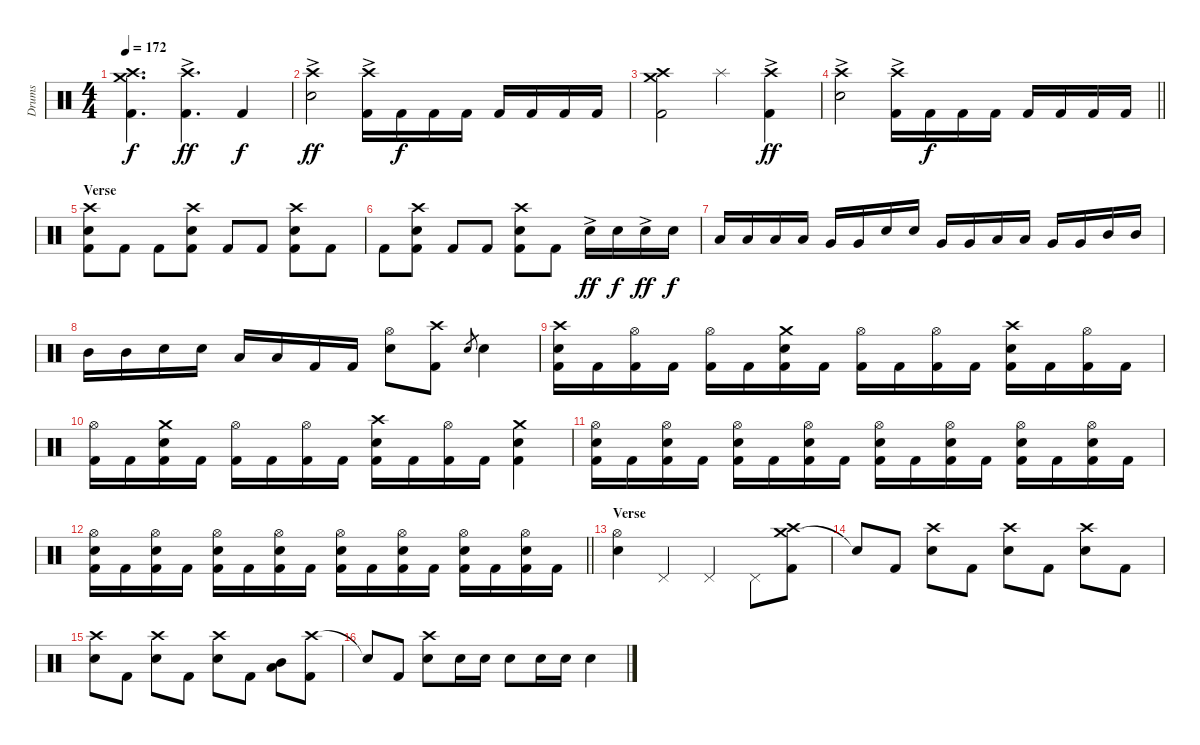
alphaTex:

\track ("Drums" "Drums") {instrument percussion}
\staff {score}
\articulation defaults
\ts (4 4)
\tempo 172
\clef neutral
\ks c
("Crash medium (hit)" "Crash high (hit)" "Kick (hit) 2").4{d dy f} ("Crash high (hit)"{ac} "Kick (hit) 2").4{d dy ff} "Kick (hit) 2".4{dy f} |
("Crash high (hit)"{ac} "Electric Snare (hit)").2{dy ff} ("Crash high (hit)"{ac} "Kick (hit) 2").16 "Kick (hit) 2".16{dy f} "Kick (hit) 2".16 "Kick (hit) 2".16 "Kick (hit) 2".16 "Kick (hit) 2".16 "Kick (hit) 2".16 "Kick (hit) 2".16 |
("Crash medium (hit)" "Crash high (hit)" "Kick (hit) 2").2 "Splash (hit)".4 ("Crash high (hit)"{ac} "Kick (hit) 2").4{dy ff} |
\barLineRight lightlight
("Crash high (hit)"{ac} "Electric Snare (hit)").2 ("Crash high (hit)"{ac} "Kick (hit) 2").16 "Kick (hit) 2".16{dy f} "Kick (hit) 2".16 "Kick (hit) 2".16 "Kick (hit) 2".16 "Kick (hit) 2".16 "Kick (hit) 2".16 "Kick (hit) 2".16 |
\section ("" "Verse")
("Crash high (hit)" "Electric Snare (hit)" "Kick (hit) 2").8 "Kick (hit) 2".8 "Kick (hit) 2".8 ("Crash high (hit)" "Electric Snare (hit)" "Kick (hit) 2").8 "Kick (hit) 2".8 "Kick (hit) 2".8 ("Crash high (hit)" "Electric Snare (hit)" "Kick (hit) 2").8 "Kick (hit) 2".8 |
"Kick (hit) 2".8 ("Crash high (hit)" "Electric Snare (hit)" "Kick (hit) 2").8 "Kick (hit) 2".8 "Kick (hit) 2".8 ("Crash high (hit)" "Electric Snare (hit)" "Kick (hit) 2").8 "Kick (hit) 2".8 "Electric Snare (hit)"{ac}.16{dy ff} "Electric Snare (hit)".16{dy f} "Electric Snare (hit)"{ac}.16{dy ff} "Electric Snare (hit)".16{dy f} |
"Low Tom (hit)".16 "Low Tom (hit)".16 "Low Tom (hit)".16 "Low Tom (hit)".16 "Very Low Tom (hit)".16 "Very Low Tom (hit)".16 "Electric Snare (hit)".16 "Electric Snare (hit)".16 "Very Low Tom (hit)".16 "Very Low Tom (hit)".16 "Low Tom (hit)".16 "Low Tom (hit)".16 "Very Low Tom (hit)".16 "Very Low Tom (hit)".16 "Mid Tom (hit)".16 "Mid Tom (hit)".16 |
"Mid Tom (hit)".16 "Mid Tom (hit)".16 "Electric Snare (hit)".16 "Electric Snare (hit)".16 "Low Tom (hit)".16 "Low Tom (hit)".16 "Kick (hit) 2".16 "Kick (hit) 2".16 ("Hi-Hat (open)" "Electric Snare (hit)").8 ("Crash high (hit)" "Kick (hit) 2").8 "Electric Snare (hit)".8{gr} "Electric Snare (hit)".4 |
("Crash high (hit)" "Electric Snare (hit)" "Kick (hit) 2").16 "Kick (hit) 2".16 ("Hi-Hat (open)" "Kick (hit) 2").16 "Kick (hit) 2".16 ("Hi-Hat (open)" "Kick (hit) 2").16 "Kick (hit) 2".16 ("Crash medium (hit)" "Electric Snare (hit)" "Kick (hit) 2").16 "Kick (hit) 2".16 ("Hi-Hat (open)" "Kick (hit) 2").16 "Kick (hit) 2".16 ("Hi-Hat (open)" "Kick (hit) 2").16 "Kick (hit) 2".16 ("Crash high (hit)" "Electric Snare (hit)" "Kick (hit) 2").16 "Kick (hit) 2".16 ("Hi-Hat (open)" "Kick (hit) 2").16 "Kick (hit) 2".16 |
("Hi-Hat (open)" "Kick (hit) 2").16 "Kick (hit) 2".16 ("Crash medium (hit)" "Electric Snare (hit)" "Kick (hit) 2").16 "Kick (hit) 2".16 ("Hi-Hat (open)" "Kick (hit) 2").16 "Kick (hit) 2".16 ("Hi-Hat (open)" "Kick (hit) 2").16 "Kick (hit) 2".16 ("Crash high (hit)" "Electric Snare (hit)" "Kick (hit) 2").16 "Kick (hit) 2".16 ("Hi-Hat (open)" "Kick (hit) 2").16 "Kick (hit) 2".16 ("Crash medium (hit)" "Electric Snare (hit)" "Kick (hit) 2").4 |
("Hi-Hat (open)" "Electric Snare (hit)" "Kick (hit) 2").16 "Kick (hit) 2".16 ("Hi-Hat (open)" "Electric Snare (hit)" "Kick (hit) 2").16 "Kick (hit) 2".16 ("Hi-Hat (open)" "Electric Snare (hit)" "Kick (hit) 2").16 "Kick (hit) 2".16 ("Hi-Hat (open)" "Electric Snare (hit)" "Kick (hit) 2").16 "Kick (hit) 2".16 ("Hi-Hat (open)" "Electric Snare (hit)" "Kick (hit) 2").16 "Kick (hit) 2".16 ("Hi-Hat (open)" "Electric Snare (hit)" "Kick (hit) 2").16 "Kick (hit) 2".16 ("Hi-Hat (open)" "Electric Snare (hit)" "Kick (hit) 2").16 "Kick (hit) 2".16 ("Hi-Hat (open)" "Electric Snare (hit)" "Kick (hit) 2").16 "Kick (hit) 2".16 |
\barLineRight lightlight
("Hi-Hat (open)" "Electric Snare (hit)" "Kick (hit) 2").16 "Kick (hit) 2".16 ("Hi-Hat (open)" "Electric Snare (hit)" "Kick (hit) 2").16 "Kick (hit) 2".16 ("Hi-Hat (open)" "Electric Snare (hit)" "Kick (hit) 2").16 "Kick (hit) 2".16 ("Hi-Hat (open)" "Electric Snare (hit)" "Kick (hit) 2").16 "Kick (hit) 2".16 ("Hi-Hat (open)" "Electric Snare (hit)" "Kick (hit) 2").16 "Kick (hit) 2".16 ("Hi-Hat (open)" "Electric Snare (hit)" "Kick (hit) 2").16 "Kick (hit) 2".16 ("Hi-Hat (open)" "Electric Snare (hit)" "Kick (hit) 2").16 "Kick (hit) 2".16 ("Hi-Hat (open)" "Electric Snare (hit)" "Kick (hit) 2").16 "Kick (hit) 2".16 |
\section ("" "Verse")
("Hi-Hat (open)" "Electric Snare (hit)").4 "Pedal Hi-Hat (hit)".4 "Pedal Hi-Hat (hit)".4 "Pedal Hi-Hat (hit)".8 ("Crash medium (hit)" "Crash high (hit)" "Kick (hit) 2").8 |
"Snare (hit)"{t}.8 "Kick (hit) 2".8 ("Crash high (hit)" "Electric Snare (hit)").8 "Kick (hit) 2".8 ("Crash high (hit)" "Electric Snare (hit)").8 "Kick (hit) 2".8 ("Crash high (hit)" "Electric Snare (hit)").8 "Kick (hit) 2".8 |
("Crash high (hit)" "Electric Snare (hit)").8 "Kick (hit) 2".8 ("Crash high (hit)" "Electric Snare (hit)").8 "Kick (hit) 2".8 ("Crash high (hit)" "Electric Snare (hit)").8 "Kick (hit) 2".8 ("Mid Tom (hit)" "Low Tom (hit)").8{bu 120} ("Crash high (hit)" "Kick (hit) 2").8 |
"Snare (hit)"{t}.8 "Kick (hit) 2".8 ("Crash high (hit)" "Electric Snare (hit)").8 "Electric Snare (hit)".16 "Electric Snare (hit)".16 "Electric Snare (hit)".8 "Electric Snare (hit)".16 "Electric Snare (hit)".16 "Electric Snare (hit)".4
